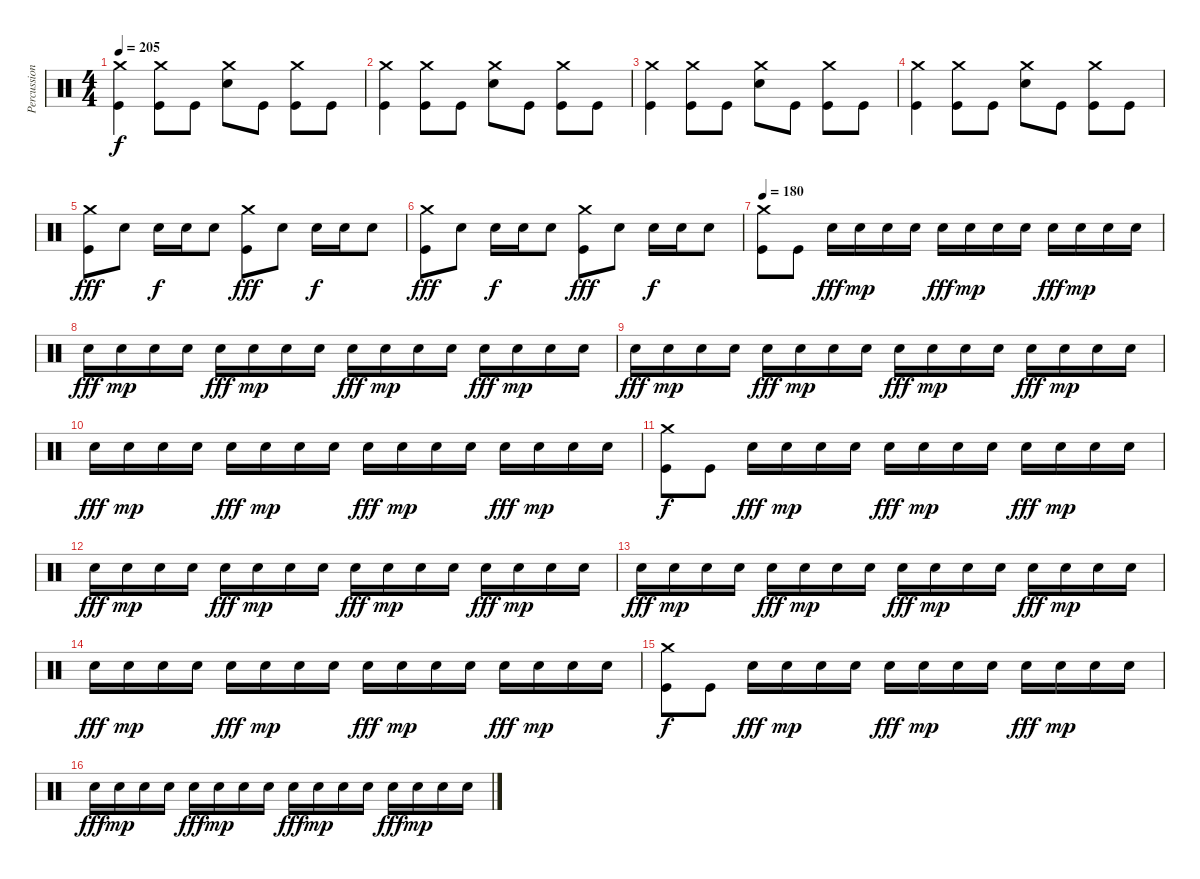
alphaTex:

\track ("Percussion" "Percussion") {instrument percussion}
\staff {score}
\articulation defaults
\ts (4 4)
\tempo 205
\clef neutral
\ks c
("Crash medium (hit)" "Kick (hit)").4{dy f} ("Crash medium (hit)" "Kick (hit)").8 "Kick (hit)".8 ("Crash medium (hit)" "Electric Snare (hit)").8 "Kick (hit)".8 ("Crash medium (hit)" "Kick (hit)").8 "Kick (hit)".8 |
("Crash medium (hit)" "Kick (hit)").4 ("Crash medium (hit)" "Kick (hit)").8 "Kick (hit)".8 ("Crash medium (hit)" "Electric Snare (hit)").8 "Kick (hit)".8 ("Crash medium (hit)" "Kick (hit)").8 "Kick (hit)".8 |
("Crash medium (hit)" "Kick (hit)").4 ("Crash medium (hit)" "Kick (hit)").8 "Kick (hit)".8 ("Crash medium (hit)" "Electric Snare (hit)").8 "Kick (hit)".8 ("Crash medium (hit)" "Kick (hit)").8 "Kick (hit)".8 |
("Crash medium (hit)" "Kick (hit)").4 ("Crash medium (hit)" "Kick (hit)").8 "Kick (hit)".8 ("Crash medium (hit)" "Electric Snare (hit)").8 "Kick (hit)".8 ("Crash medium (hit)" "Kick (hit)").8 "Kick (hit)".8 |
("Crash medium (hit)" "Kick (hit)").8{dy fff} "Electric Snare (hit)".8 "Electric Snare (hit)".16{dy f} "Electric Snare (hit)".16 "Electric Snare (hit)".8 ("Crash medium (hit)" "Kick (hit)").8{dy fff} "Electric Snare (hit)".8 "Electric Snare (hit)".16{dy f} "Electric Snare (hit)".16 "Electric Snare (hit)".8 |
("Crash medium (hit)" "Kick (hit)").8{dy fff} "Electric Snare (hit)".8 "Electric Snare (hit)".16{dy f} "Electric Snare (hit)".16 "Electric Snare (hit)".8 ("Crash medium (hit)" "Kick (hit)").8{dy fff} "Electric Snare (hit)".8 "Electric Snare (hit)".16{dy f} "Electric Snare (hit)".16 "Electric Snare (hit)".8 |
\tempo 180
("Crash medium (hit)" "Kick (hit)").8 "Kick (hit)".8 "Electric Snare (hit)".16{dy fff} "Electric Snare (hit)".16{dy mp} "Electric Snare (hit)".16 "Electric Snare (hit)".16 "Electric Snare (hit)".16{dy fff} "Electric Snare (hit)".16{dy mp} "Electric Snare (hit)".16 "Electric Snare (hit)".16 "Electric Snare (hit)".16{dy fff} "Electric Snare (hit)".16{dy mp} "Electric Snare (hit)".16 "Electric Snare (hit)".16 |
"Electric Snare (hit)".16{dy fff} "Electric Snare (hit)".16{dy mp} "Electric Snare (hit)".16 "Electric Snare (hit)".16 "Electric Snare (hit)".16{dy fff} "Electric Snare (hit)".16{dy mp} "Electric Snare (hit)".16 "Electric Snare (hit)".16 "Electric Snare (hit)".16{dy fff} "Electric Snare (hit)".16{dy mp} "Electric Snare (hit)".16 "Electric Snare (hit)".16 "Electric Snare (hit)".16{dy fff} "Electric Snare (hit)".16{dy mp} "Electric Snare (hit)".16 "Electric Snare (hit)".16 |
"Electric Snare (hit)".16{dy fff} "Electric Snare (hit)".16{dy mp} "Electric Snare (hit)".16 "Electric Snare (hit)".16 "Electric Snare (hit)".16{dy fff} "Electric Snare (hit)".16{dy mp} "Electric Snare (hit)".16 "Electric Snare (hit)".16 "Electric Snare (hit)".16{dy fff} "Electric Snare (hit)".16{dy mp} "Electric Snare (hit)".16 "Electric Snare (hit)".16 "Electric Snare (hit)".16{dy fff} "Electric Snare (hit)".16{dy mp} "Electric Snare (hit)".16 "Electric Snare (hit)".16 |
"Electric Snare (hit)".16{dy fff} "Electric Snare (hit)".16{dy mp} "Electric Snare (hit)".16 "Electric Snare (hit)".16 "Electric Snare (hit)".16{dy fff} "Electric Snare (hit)".16{dy mp} "Electric Snare (hit)".16 "Electric Snare (hit)".16 "Electric Snare (hit)".16{dy fff} "Electric Snare (hit)".16{dy mp} "Electric Snare (hit)".16 "Electric Snare (hit)".16 "Electric Snare (hit)".16{dy fff} "Electric Snare (hit)".16{dy mp} "Electric Snare (hit)".16 "Electric Snare (hit)".16 |
("Crash medium (hit)" "Kick (hit)").8{dy f} "Kick (hit)".8 "Electric Snare (hit)".16{dy fff} "Electric Snare (hit)".16{dy mp} "Electric Snare (hit)".16 "Electric Snare (hit)".16 "Electric Snare (hit)".16{dy fff} "Electric Snare (hit)".16{dy mp} "Electric Snare (hit)".16 "Electric Snare (hit)".16 "Electric Snare (hit)".16{dy fff} "Electric Snare (hit)".16{dy mp} "Electric Snare (hit)".16 "Electric Snare (hit)".16 |
"Electric Snare (hit)".16{dy fff} "Electric Snare (hit)".16{dy mp} "Electric Snare (hit)".16 "Electric Snare (hit)".16 "Electric Snare (hit)".16{dy fff} "Electric Snare (hit)".16{dy mp} "Electric Snare (hit)".16 "Electric Snare (hit)".16 "Electric Snare (hit)".16{dy fff} "Electric Snare (hit)".16{dy mp} "Electric Snare (hit)".16 "Electric Snare (hit)".16 "Electric Snare (hit)".16{dy fff} "Electric Snare (hit)".16{dy mp} "Electric Snare (hit)".16 "Electric Snare (hit)".16 |
"Electric Snare (hit)".16{dy fff} "Electric Snare (hit)".16{dy mp} "Electric Snare (hit)".16 "Electric Snare (hit)".16 "Electric Snare (hit)".16{dy fff} "Electric Snare (hit)".16{dy mp} "Electric Snare (hit)".16 "Electric Snare (hit)".16 "Electric Snare (hit)".16{dy fff} "Electric Snare (hit)".16{dy mp} "Electric Snare (hit)".16 "Electric Snare (hit)".16 "Electric Snare (hit)".16{dy fff} "Electric Snare (hit)".16{dy mp} "Electric Snare (hit)".16 "Electric Snare (hit)".16 |
"Electric Snare (hit)".16{dy fff} "Electric Snare (hit)".16{dy mp} "Electric Snare (hit)".16 "Electric Snare (hit)".16 "Electric Snare (hit)".16{dy fff} "Electric Snare (hit)".16{dy mp} "Electric Snare (hit)".16 "Electric Snare (hit)".16 "Electric Snare (hit)".16{dy fff} "Electric Snare (hit)".16{dy mp} "Electric Snare (hit)".16 "Electric Snare (hit)".16 "Electric Snare (hit)".16{dy fff} "Electric Snare (hit)".16{dy mp} "Electric Snare (hit)".16 "Electric Snare (hit)".16 |
("Crash medium (hit)" "Kick (hit)").8{dy f} "Kick (hit)".8 "Electric Snare (hit)".16{dy fff} "Electric Snare (hit)".16{dy mp} "Electric Snare (hit)".16 "Electric Snare (hit)".16 "Electric Snare (hit)".16{dy fff} "Electric Snare (hit)".16{dy mp} "Electric Snare (hit)".16 "Electric Snare (hit)".16 "Electric Snare (hit)".16{dy fff} "Electric Snare (hit)".16{dy mp} "Electric Snare (hit)".16 "Electric Snare (hit)".16 |
"Electric Snare (hit)".16{dy fff} "Electric Snare (hit)".16{dy mp} "Electric Snare (hit)".16 "Electric Snare (hit)".16 "Electric Snare (hit)".16{dy fff} "Electric Snare (hit)".16{dy mp} "Electric Snare (hit)".16 "Electric Snare (hit)".16 "Electric Snare (hit)".16{dy fff} "Electric Snare (hit)".16{dy mp} "Electric Snare (hit)".16 "Electric Snare (hit)".16 "Electric Snare (hit)".16{dy fff} "Electric Snare (hit)".16{dy mp} "Electric Snare (hit)".16 "Electric Snare (hit)".16
